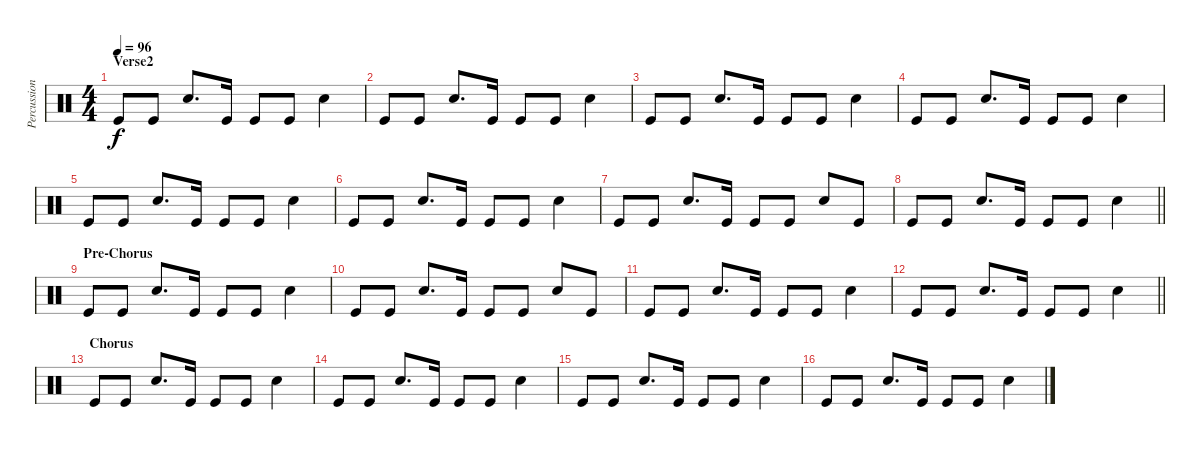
\track ("Percussion" "Percussion") {instrument percussion}
\staff {score}
\articulation defaults
\ts (4 4)
\section ("" "Verse2")
\tempo 96
\clef neutral
\ks c "Kick (hit)".8{dy f} "Kick (hit)".8 "Electric Snare (hit)".8{d} "Kick (hit)".16 "Kick (hit)".8 "Kick (hit)".8 "Electric Snare (hit)".4
|
"Kick (hit)".8 "Kick (hit)".8 "Electric Snare (hit)".8{d} "Kick (hit)".16 "Kick (hit)".8 "Kick (hit)".8 "Electric Snare (hit)".4 |
"Kick (hit)".8 "Kick (hit)".8 "Electric Snare (hit)".8{d} "Kick (hit)".16 "Kick (hit)".8 "Kick (hit)".8 "Electric Snare (hit)".4 |
"Kick (hit)".8 "Kick (hit)".8 "Electric Snare (hit)".8{d} "Kick (hit)".16 "Kick (hit)".8 "Kick (hit)".8 "Electric Snare (hit)".4 |
"Kick (hit)".8 "Kick (hit)".8 "Electric Snare (hit)".8{d} "Kick (hit)".16 "Kick (hit)".8 "Kick (hit)".8 "Electric Snare (hit)".4 |
"Kick (hit)".8 "Kick (hit)".8 "Electric Snare (hit)".8{d} "Kick (hit)".16 "Kick (hit)".8 "Kick (hit)".8 "Electric Snare (hit)".4 |
"Kick (hit)".8 "Kick (hit)".8 "Electric Snare (hit)".8{d} "Kick (hit)".16 "Kick (hit)".8 "Kick (hit)".8 "Electric Snare (hit)".8 "Kick (hit)".8 |
\barLineRight lightlight "Kick (hit)".8 "Kick (hit)".8 "Electric Snare (hit)".8{d} "Kick (hit)".16 "Kick (hit)".8 "Kick (hit)".8 "Electric Snare (hit)".4
|
\section ("" "Pre-Chorus")
"Kick (hit)".8 "Kick (hit)".8 "Electric Snare (hit)".8{d} "Kick (hit)".16 "Kick (hit)".8 "Kick (hit)".8 "Electric Snare (hit)".4 |
"Kick (hit)".8 "Kick (hit)".8 "Electric Snare (hit)".8{d} "Kick (hit)".16 "Kick (hit)".8 "Kick (hit)".8 "Electric Snare (hit)".8 "Kick (hit)".8 |
"Kick (hit)".8 "Kick (hit)".8 "Electric Snare (hit)".8{d} "Kick (hit)".16 "Kick (hit)".8 "Kick (hit)".8 "Electric Snare (hit)".4 |
\barLineRight lightlight "Kick (hit)".8 "Kick (hit)".8 "Electric Snare (hit)".8{d} "Kick (hit)".16 "Kick (hit)".8 "Kick (hit)".8 "Electric Snare (hit)".4
|
\section ("" "Chorus")
"Kick (hit)".8 "Kick (hit)".8 "Electric Snare (hit)".8{d} "Kick (hit)".16 "Kick (hit)".8 "Kick (hit)".8 "Electric Snare (hit)".4 |
"Kick (hit)".8 "Kick (hit)".8 "Electric Snare (hit)".8{d} "Kick (hit)".16 "Kick (hit)".8 "Kick (hit)".8 "Electric Snare (hit)".4 |
"Kick (hit)".8 "Kick (hit)".8 "Electric Snare (hit)".8{d} "Kick (hit)".16 "Kick (hit)".8 "Kick (hit)".8 "Electric Snare (hit)".4 |
"Kick (hit)".8 "Kick (hit)".8 "Electric Snare (hit)".8{d} "Kick (hit)".16 "Kick (hit)".8 "Kick (hit)".8 "Electric Snare (hit)".4
